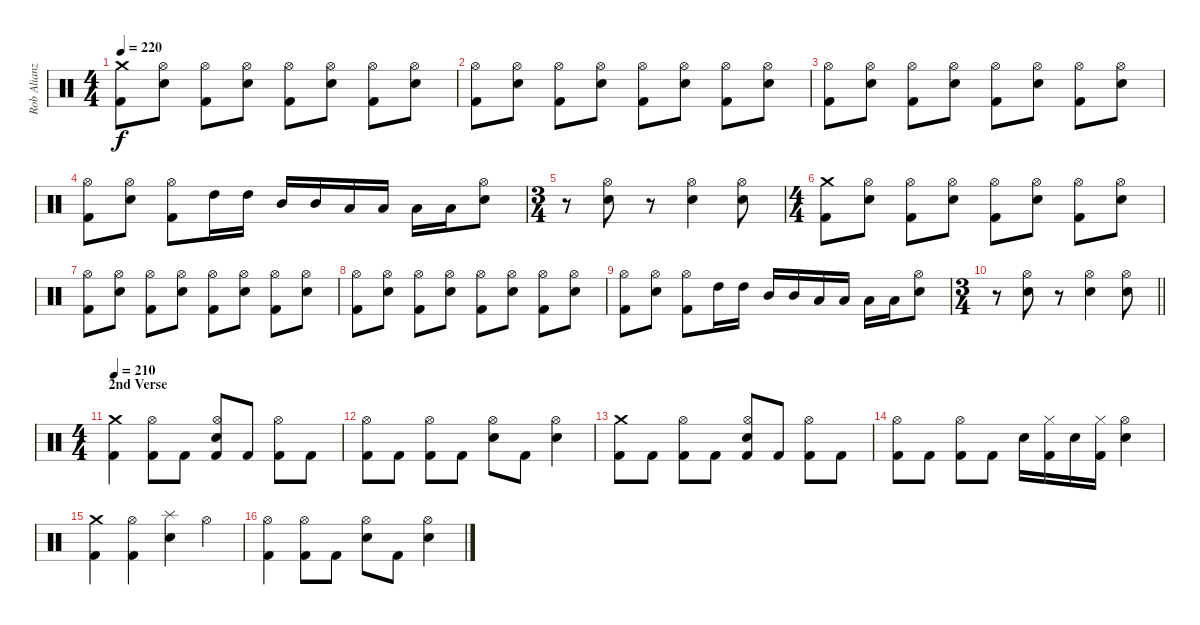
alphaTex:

\track ("Rob Alianz" "Rob Alianz") {instrument percussion}
\staff {score}
\articulation defaults
\ts (4 4)
\tempo 220
\clef neutral
\ks c
("Crash medium (hit)" "Kick (hit) 2").8{dy f} ("Hi-Hat (open)" "Electric Snare (hit)").8 ("Hi-Hat (open)" "Kick (hit) 2").8 ("Hi-Hat (open)" "Electric Snare (hit)").8 ("Hi-Hat (open)" "Kick (hit) 2").8 ("Hi-Hat (open)" "Electric Snare (hit)").8 ("Hi-Hat (open)" "Kick (hit) 2").8 ("Hi-Hat (open)" "Electric Snare (hit)").8 |
("Hi-Hat (open)" "Kick (hit) 2").8 ("Hi-Hat (open)" "Electric Snare (hit)").8 ("Hi-Hat (open)" "Kick (hit) 2").8 ("Hi-Hat (open)" "Electric Snare (hit)").8 ("Hi-Hat (open)" "Kick (hit) 2").8 ("Hi-Hat (open)" "Electric Snare (hit)").8 ("Hi-Hat (open)" "Kick (hit) 2").8 ("Hi-Hat (open)" "Electric Snare (hit)").8 |
("Hi-Hat (open)" "Kick (hit) 2").8 ("Hi-Hat (open)" "Electric Snare (hit)").8 ("Hi-Hat (open)" "Kick (hit) 2").8 ("Hi-Hat (open)" "Electric Snare (hit)").8 ("Hi-Hat (open)" "Kick (hit) 2").8 ("Hi-Hat (open)" "Electric Snare (hit)").8 ("Hi-Hat (open)" "Kick (hit) 2").8 ("Hi-Hat (open)" "Electric Snare (hit)").8 |
("Hi-Hat (open)" "Kick (hit) 2").8 ("Hi-Hat (open)" "Electric Snare (hit)").8 ("Hi-Hat (open)" "Kick (hit) 2").8 "High Tom (hit)".16 "High Tom (hit)".16 "Mid Tom (hit)".16 "Mid Tom (hit)".16 "Low Tom (hit)".16 "Low Tom (hit)".16 "Low Tom (hit)".16 "Low Tom (hit)".16 ("Hi-Hat (open)" "Electric Snare (hit)").8 |
\ts (3 4)
r.8 ("Hi-Hat (open)" "Electric Snare (hit)").8 r.8 ("Hi-Hat (open)" "Electric Snare (hit)").4 ("Hi-Hat (open)" "Electric Snare (hit)").8 |
\ts (4 4)
("Crash medium (hit)" "Kick (hit) 2").8 ("Hi-Hat (open)" "Electric Snare (hit)").8 ("Hi-Hat (open)" "Kick (hit) 2").8 ("Hi-Hat (open)" "Electric Snare (hit)").8 ("Hi-Hat (open)" "Kick (hit) 2").8 ("Hi-Hat (open)" "Electric Snare (hit)").8 ("Hi-Hat (open)" "Kick (hit) 2").8 ("Hi-Hat (open)" "Electric Snare (hit)").8 |
("Hi-Hat (open)" "Kick (hit) 2").8 ("Hi-Hat (open)" "Electric Snare (hit)").8 ("Hi-Hat (open)" "Kick (hit) 2").8 ("Hi-Hat (open)" "Electric Snare (hit)").8 ("Hi-Hat (open)" "Kick (hit) 2").8 ("Hi-Hat (open)" "Electric Snare (hit)").8 ("Hi-Hat (open)" "Kick (hit) 2").8 ("Hi-Hat (open)" "Electric Snare (hit)").8 |
("Hi-Hat (open)" "Kick (hit) 2").8 ("Hi-Hat (open)" "Electric Snare (hit)").8 ("Hi-Hat (open)" "Kick (hit) 2").8 ("Hi-Hat (open)" "Electric Snare (hit)").8 ("Hi-Hat (open)" "Kick (hit) 2").8 ("Hi-Hat (open)" "Electric Snare (hit)").8 ("Hi-Hat (open)" "Kick (hit) 2").8 ("Hi-Hat (open)" "Electric Snare (hit)").8 |
("Hi-Hat (open)" "Kick (hit) 2").8 ("Hi-Hat (open)" "Electric Snare (hit)").8 ("Hi-Hat (open)" "Kick (hit) 2").8 "High Tom (hit)".16 "High Tom (hit)".16 "Mid Tom (hit)".16 "Mid Tom (hit)".16 "Low Tom (hit)".16 "Low Tom (hit)".16 "Low Tom (hit)".16 "Low Tom (hit)".16 ("Hi-Hat (open)" "Electric Snare (hit)").8 |
\ts (3 4)
\barLineRight lightlight
r.8 ("Hi-Hat (open)" "Electric Snare (hit)").8 r.8 ("Hi-Hat (open)" "Electric Snare (hit)").4 ("Hi-Hat (open)" "Electric Snare (hit)").8 |
\ts (4 4)
\section ("" "2nd Verse")
\tempo 210
("Crash medium (hit)" "Kick (hit) 2").4 ("Hi-Hat (open)" "Kick (hit) 2").8 "Kick (hit) 2".8 ("Hi-Hat (open)" "Electric Snare (hit)" "Kick (hit) 2").8 "Kick (hit) 2".8 ("Hi-Hat (open)" "Kick (hit) 2").8 "Kick (hit) 2".8 |
("Hi-Hat (open)" "Kick (hit) 2").8 "Kick (hit) 2".8 ("Hi-Hat (open)" "Kick (hit) 2").8 "Kick (hit) 2".8 ("Hi-Hat (open)" "Electric Snare (hit)").8 "Kick (hit) 2".8 ("Hi-Hat (open)" "Electric Snare (hit)").4 |
("Crash medium (hit)" "Kick (hit) 2").8 "Kick (hit) 2".8 ("Hi-Hat (open)" "Kick (hit) 2").8 "Kick (hit) 2".8 ("Hi-Hat (open)" "Electric Snare (hit)" "Kick (hit) 2").8 "Kick (hit) 2".8 ("Hi-Hat (open)" "Kick (hit) 2").8 "Kick (hit) 2".8 |
("Hi-Hat (open)" "Kick (hit) 2").8 "Kick (hit) 2".8 ("Hi-Hat (open)" "Kick (hit) 2").8 "Kick (hit) 2".8 "Electric Snare (hit)".16 ("Hi-Hat (closed)" "Kick (hit) 2").16 "Electric Snare (hit)".16 ("Hi-Hat (closed)" "Kick (hit) 2").16 ("Hi-Hat (open)" "Electric Snare (hit)").4 |
("Crash medium (hit)" "Kick (hit) 2").4 ("Hi-Hat (open)" "Kick (hit) 2").4 ("Splash (hit)" "Electric Snare (hit)").4 "Hi-Hat (open)".4 |
("Hi-Hat (open)" "Kick (hit) 2").4 ("Hi-Hat (open)" "Kick (hit) 2").8 "Kick (hit) 2".8 ("Hi-Hat (open)" "Electric Snare (hit)").8 "Kick (hit) 2".8 ("Hi-Hat (open)" "Electric Snare (hit)").4
